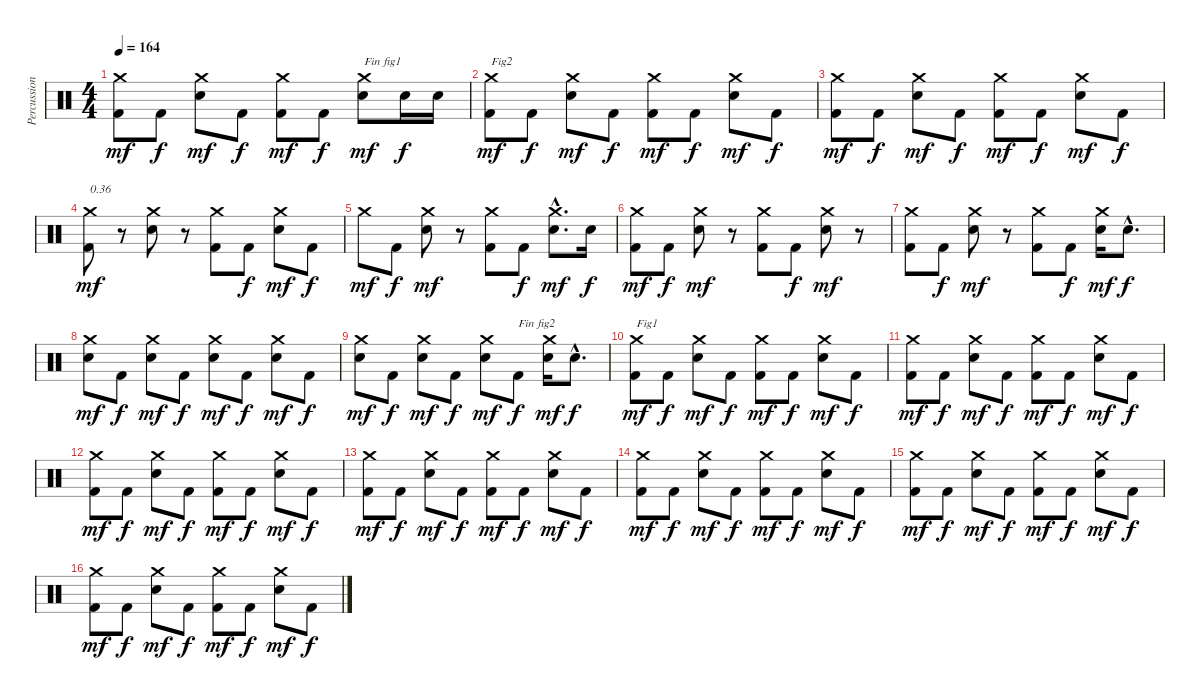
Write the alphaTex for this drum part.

\track ("Percussions" "Percussion") {instrument percussion}
\staff {score}
\articulation defaults
\ts (4 4)
\tempo 164
\clef neutral
\ks c
("Kick (hit) 2" "Crash medium (hit)").8{dy mf} "Kick (hit) 2".8{dy f} ("Electric Snare (hit)" "Crash medium (hit)").8{dy mf} "Kick (hit) 2".8{dy f} ("Kick (hit) 2" "Crash medium (hit)").8{dy mf} "Kick (hit) 2".8{dy f} ("Electric Snare (hit)" "Crash medium (hit)").8{txt "Fin fig1" dy mf} "Electric Snare (hit)".16{dy f} "Electric Snare (hit)".16 |
("Kick (hit) 2" "Crash medium (hit)").8{txt "Fig2" dy mf} "Kick (hit) 2".8{dy f} ("Electric Snare (hit)" "Crash medium (hit)").8{dy mf} "Kick (hit) 2".8{dy f} ("Kick (hit) 2" "Crash medium (hit)").8{dy mf} "Kick (hit) 2".8{dy f} ("Electric Snare (hit)" "Crash medium (hit)").8{dy mf} "Kick (hit) 2".8{dy f} |
("Kick (hit) 2" "Crash medium (hit)").8{dy mf} "Kick (hit) 2".8{dy f} ("Electric Snare (hit)" "Crash medium (hit)").8{dy mf} "Kick (hit) 2".8{dy f} ("Kick (hit) 2" "Crash medium (hit)").8{dy mf} "Kick (hit) 2".8{dy f} ("Electric Snare (hit)" "Crash medium (hit)").8{dy mf} "Kick (hit) 2".8{dy f} |
("Kick (hit) 2" "Crash medium (hit)").8{txt "0.36" dy mf} r.8 ("Electric Snare (hit)" "Crash medium (hit)").8 r.8 ("Kick (hit) 2" "Crash medium (hit)").8 "Kick (hit) 2".8{dy f} ("Electric Snare (hit)" "Crash medium (hit)").8{dy mf} "Kick (hit) 2".8{dy f} |
"Crash medium (hit)".8{dy mf} "Kick (hit) 2".8{dy f} ("Electric Snare (hit)" "Crash medium (hit)").8{dy mf} r.8 ("Kick (hit) 2" "Crash medium (hit)").8 "Kick (hit) 2".8{dy f} ("Electric Snare (hit)"{hac} "Crash medium (hit)"{hac}).8{d dy mf} "Electric Snare (hit)".16{dy f} |
("Kick (hit) 2" "Crash medium (hit)").8{dy mf} "Kick (hit) 2".8{dy f} ("Electric Snare (hit)" "Crash medium (hit)").8{dy mf} r.8 ("Kick (hit) 2" "Crash medium (hit)").8 "Kick (hit) 2".8{dy f} ("Electric Snare (hit)" "Crash medium (hit)").8{dy mf} r.8 |
("Kick (hit) 2" "Crash medium (hit)").8 "Kick (hit) 2".8{dy f} ("Electric Snare (hit)" "Crash medium (hit)").8{dy mf} r.8 ("Kick (hit) 2" "Crash medium (hit)").8 "Kick (hit) 2".8{dy f} ("Electric Snare (hit)" "Crash medium (hit)").16{dy mf} "Electric Snare (hit)"{hac}.8{d dy f} |
("Electric Snare (hit)" "Crash medium (hit)").8{dy mf} "Kick (hit) 2".8{dy f} ("Electric Snare (hit)" "Crash medium (hit)").8{dy mf} "Kick (hit) 2".8{dy f} ("Electric Snare (hit)" "Crash medium (hit)").8{dy mf} "Kick (hit) 2".8{dy f} ("Electric Snare (hit)" "Crash medium (hit)").8{dy mf} "Kick (hit) 2".8{dy f} |
("Electric Snare (hit)" "Crash medium (hit)").8{dy mf} "Kick (hit) 2".8{dy f} ("Electric Snare (hit)" "Crash medium (hit)").8{dy mf} "Kick (hit) 2".8{dy f} ("Electric Snare (hit)" "Crash medium (hit)").8{dy mf} "Kick (hit) 2".8{txt "Fin fig2" dy f} ("Electric Snare (hit)" "Crash medium (hit)").16{dy mf} "Electric Snare (hit)"{hac}.8{d dy f} |
("Kick (hit) 2" "Crash medium (hit)").8{txt "Fig1" dy mf} "Kick (hit) 2".8{dy f} ("Electric Snare (hit)" "Crash medium (hit)").8{dy mf} "Kick (hit) 2".8{dy f} ("Kick (hit) 2" "Crash medium (hit)").8{dy mf} "Kick (hit) 2".8{dy f} ("Electric Snare (hit)" "Crash medium (hit)").8{dy mf} "Kick (hit) 2".8{dy f} |
("Kick (hit) 2" "Crash medium (hit)").8{dy mf} "Kick (hit) 2".8{dy f} ("Electric Snare (hit)" "Crash medium (hit)").8{dy mf} "Kick (hit) 2".8{dy f} ("Kick (hit) 2" "Crash medium (hit)").8{dy mf} "Kick (hit) 2".8{dy f} ("Electric Snare (hit)" "Crash medium (hit)").8{dy mf} "Kick (hit) 2".8{dy f} |
("Kick (hit) 2" "Crash medium (hit)").8{dy mf} "Kick (hit) 2".8{dy f} ("Electric Snare (hit)" "Crash medium (hit)").8{dy mf} "Kick (hit) 2".8{dy f} ("Kick (hit) 2" "Crash medium (hit)").8{dy mf} "Kick (hit) 2".8{dy f} ("Electric Snare (hit)" "Crash medium (hit)").8{dy mf} "Kick (hit) 2".8{dy f} |
("Kick (hit) 2" "Crash medium (hit)").8{dy mf} "Kick (hit) 2".8{dy f} ("Electric Snare (hit)" "Crash medium (hit)").8{dy mf} "Kick (hit) 2".8{dy f} ("Kick (hit) 2" "Crash medium (hit)").8{dy mf} "Kick (hit) 2".8{dy f} ("Electric Snare (hit)" "Crash medium (hit)").8{dy mf} "Kick (hit) 2".8{dy f} |
("Kick (hit) 2" "Crash medium (hit)").8{dy mf} "Kick (hit) 2".8{dy f} ("Electric Snare (hit)" "Crash medium (hit)").8{dy mf} "Kick (hit) 2".8{dy f} ("Kick (hit) 2" "Crash medium (hit)").8{dy mf} "Kick (hit) 2".8{dy f} ("Electric Snare (hit)" "Crash medium (hit)").8{dy mf} "Kick (hit) 2".8{dy f} |
("Kick (hit) 2" "Crash medium (hit)").8{dy mf} "Kick (hit) 2".8{dy f} ("Electric Snare (hit)" "Crash medium (hit)").8{dy mf} "Kick (hit) 2".8{dy f} ("Kick (hit) 2" "Crash medium (hit)").8{dy mf} "Kick (hit) 2".8{dy f} ("Electric Snare (hit)" "Crash medium (hit)").8{dy mf} "Kick (hit) 2".8{dy f} |
("Kick (hit) 2" "Crash medium (hit)").8{dy mf} "Kick (hit) 2".8{dy f} ("Electric Snare (hit)" "Crash medium (hit)").8{dy mf} "Kick (hit) 2".8{dy f} ("Kick (hit) 2" "Crash medium (hit)").8{dy mf} "Kick (hit) 2".8{dy f} ("Electric Snare (hit)" "Crash medium (hit)").8{dy mf} "Kick (hit) 2".8{dy f}
